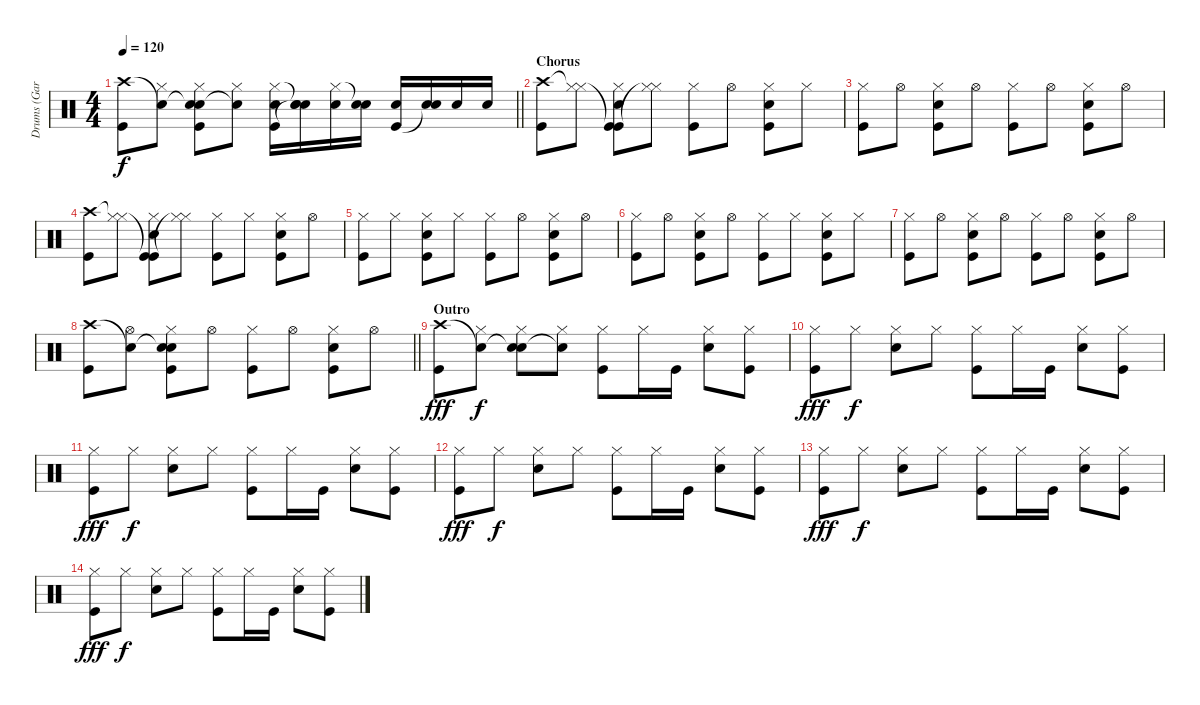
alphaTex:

\track ("Drums (Gary Mallaber)" "Drums (Gar") {instrument percussion}
\staff {score}
\articulation defaults
\ts (4 4)
\tempo 120
\clef neutral
\barLineRight lightlight
\ks c
("Crash high (hit)" "Kick (hit)").8{dy f} ("Snare (hit)"{t} "Hi-Hat (closed)").8 ("Snare (hit)"{t} "Hi-Hat (closed)" "Snare (hit) 2" "Kick (hit)").8 ("Snare (hit)"{t} "Hi-Hat (closed)").8 ("Hi-Hat (closed)" "Snare (hit) 2" "Kick (hit)").16 ("Snare (hit)"{t} "Snare (hit) 2" "Snare (hit)"{t}).16 ("Hi-Hat (closed)" "Snare (hit) 2").16 ("Snare (hit)"{t} "Snare (hit) 2").16 ("Snare (hit) 2" "Kick (hit)").16 ("Snare (hit) 2" "Snare (hit)"{t}).16 "Snare (hit) 2".16 "Snare (hit) 2".16 |
\section ("" "Chorus")
("Crash high (hit)" "Kick (hit)").8 ("Hi-Hat (closed)"{t} "Hi-Hat (closed)").8 ("Kick (hit)"{t} "Hi-Hat (closed)" "Snare (hit) 2" "Kick (hit)").8 ("Hi-Hat (closed)"{t} "Hi-Hat (closed)").8 ("Hi-Hat (closed)" "Kick (hit)").8 "Hi-Hat (open)".8 ("Hi-Hat (closed)" "Snare (hit) 2" "Kick (hit)").8 "Hi-Hat (closed)".8 |
("Hi-Hat (closed)" "Kick (hit)").8 "Hi-Hat (open)".8 ("Hi-Hat (closed)" "Snare (hit) 2" "Kick (hit)").8 "Hi-Hat (open)".8 ("Hi-Hat (closed)" "Kick (hit)").8 "Hi-Hat (open)".8 ("Hi-Hat (closed)" "Snare (hit) 2" "Kick (hit)").8 "Hi-Hat (open)".8 |
("Crash high (hit)" "Kick (hit)").8 ("Hi-Hat (closed)"{t} "Hi-Hat (closed)").8 ("Kick (hit)"{t} "Hi-Hat (closed)" "Snare (hit) 2" "Kick (hit)").8 ("Hi-Hat (closed)"{t} "Hi-Hat (closed)").8 ("Hi-Hat (closed)" "Kick (hit)").8 "Hi-Hat (closed)".8 ("Hi-Hat (closed)" "Snare (hit) 2" "Kick (hit)").8 "Hi-Hat (open)".8 |
("Hi-Hat (closed)" "Kick (hit)").8 "Hi-Hat (closed)".8 ("Hi-Hat (closed)" "Snare (hit) 2" "Kick (hit)").8 "Hi-Hat (closed)".8 ("Hi-Hat (closed)" "Kick (hit)").8 "Hi-Hat (open)".8 ("Hi-Hat (closed)" "Snare (hit) 2" "Kick (hit)").8 "Hi-Hat (open)".8 |
("Hi-Hat (closed)" "Kick (hit)").8 "Hi-Hat (open)".8 ("Hi-Hat (closed)" "Snare (hit) 2" "Kick (hit)").8 "Hi-Hat (open)".8 ("Hi-Hat (closed)" "Kick (hit)").8 "Hi-Hat (closed)".8 ("Hi-Hat (closed)" "Snare (hit) 2" "Kick (hit)").8 "Hi-Hat (closed)".8 |
("Hi-Hat (closed)" "Kick (hit)").8 "Hi-Hat (open)".8 ("Hi-Hat (closed)" "Snare (hit) 2" "Kick (hit)").8 "Hi-Hat (open)".8 ("Hi-Hat (closed)" "Kick (hit)").8 "Hi-Hat (open)".8 ("Hi-Hat (closed)" "Snare (hit) 2" "Kick (hit)").8 "Hi-Hat (open)".8 |
\barLineRight lightlight
("Crash high (hit)" "Kick (hit)").8 ("Snare (hit)"{t} "Hi-Hat (open)").8 ("Snare (hit)"{t} "Hi-Hat (closed)" "Snare (hit) 2" "Kick (hit)").8 "Hi-Hat (open)".8 ("Hi-Hat (closed)" "Kick (hit)").8 "Hi-Hat (open)".8 ("Hi-Hat (closed)" "Snare (hit) 2" "Kick (hit)").8 "Hi-Hat (open)".8 |
\section ("" "Outro")
("Crash high (hit)" "Kick (hit)").8{dy fff} ("Snare (hit)"{t} "Hi-Hat (closed)").8{dy f} ("Snare (hit)"{t} "Hi-Hat (closed)" "Snare (hit) 2").8 ("Snare (hit)"{t} "Hi-Hat (closed)").8 ("Hi-Hat (closed)" "Kick (hit)").8 "Hi-Hat (closed)".16 "Kick (hit)".16 ("Hi-Hat (closed)" "Snare (hit) 2").8 ("Hi-Hat (closed)" "Kick (hit)").8 |
("Hi-Hat (closed)" "Kick (hit)").8{dy fff} "Hi-Hat (closed)".8{dy f} ("Hi-Hat (closed)" "Snare (hit) 2").8 "Hi-Hat (closed)".8 ("Hi-Hat (closed)" "Kick (hit)").8 "Hi-Hat (closed)".16 "Kick (hit)".16 ("Hi-Hat (closed)" "Snare (hit) 2").8 ("Hi-Hat (closed)" "Kick (hit)").8 |
("Hi-Hat (closed)" "Kick (hit)").8{dy fff} "Hi-Hat (closed)".8{dy f} ("Hi-Hat (closed)" "Snare (hit) 2").8 "Hi-Hat (closed)".8 ("Hi-Hat (closed)" "Kick (hit)").8 "Hi-Hat (closed)".16 "Kick (hit)".16 ("Hi-Hat (closed)" "Snare (hit) 2").8 ("Hi-Hat (closed)" "Kick (hit)").8 |
("Hi-Hat (closed)" "Kick (hit)").8{dy fff} "Hi-Hat (closed)".8{dy f} ("Hi-Hat (closed)" "Snare (hit) 2").8 "Hi-Hat (closed)".8 ("Hi-Hat (closed)" "Kick (hit)").8 "Hi-Hat (closed)".16 "Kick (hit)".16 ("Hi-Hat (closed)" "Snare (hit) 2").8 ("Hi-Hat (closed)" "Kick (hit)").8 |
("Hi-Hat (closed)" "Kick (hit)").8{dy fff} "Hi-Hat (closed)".8{dy f} ("Hi-Hat (closed)" "Snare (hit) 2").8 "Hi-Hat (closed)".8 ("Hi-Hat (closed)" "Kick (hit)").8 "Hi-Hat (closed)".16 "Kick (hit)".16 ("Hi-Hat (closed)" "Snare (hit) 2").8 ("Hi-Hat (closed)" "Kick (hit)").8 |
("Hi-Hat (closed)" "Kick (hit)").8{dy fff} "Hi-Hat (closed)".8{dy f} ("Hi-Hat (closed)" "Snare (hit) 2").8 "Hi-Hat (closed)".8 ("Hi-Hat (closed)" "Kick (hit)").8 "Hi-Hat (closed)".16 "Kick (hit)".16 ("Hi-Hat (closed)" "Snare (hit) 2").8 ("Hi-Hat (closed)" "Kick (hit)").8
